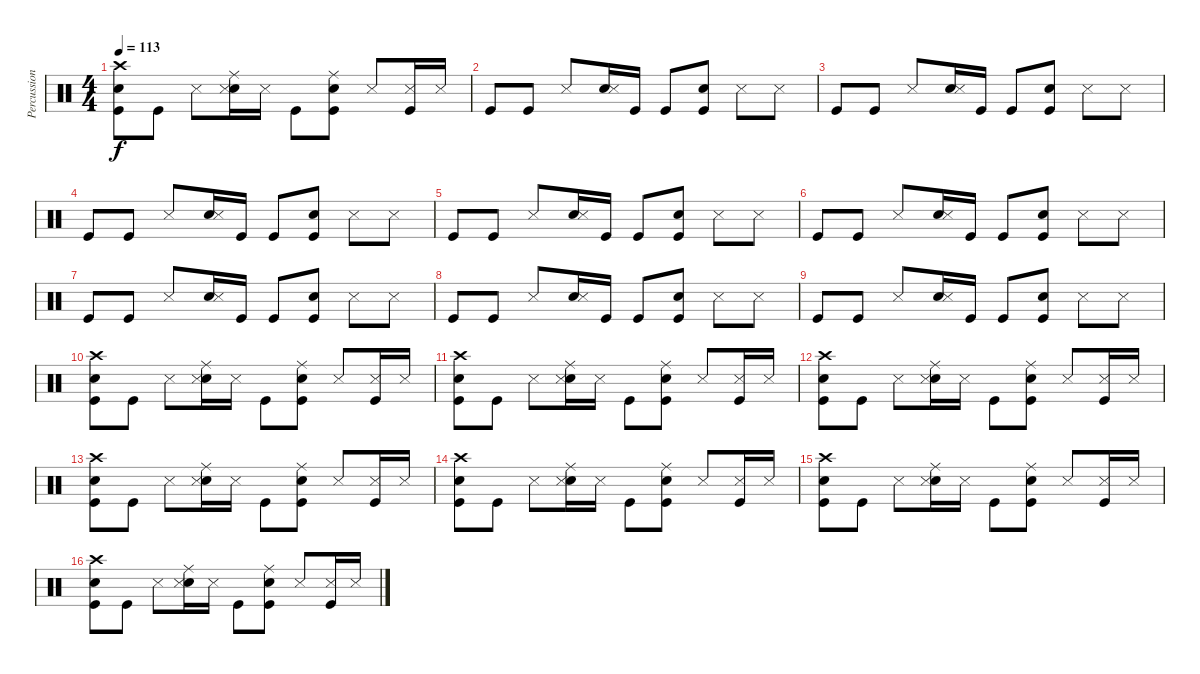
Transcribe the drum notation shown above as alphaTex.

\track ("Percussion" "Percussion") {instrument percussion}
\staff {score}
\articulation defaults
\ts (4 4)
\tempo 113
\clef neutral
\ks c
("Crash high (hit)" "Electric Snare (hit)" "Kick (hit)").8{dy f} "Kick (hit)".8 "Snare (side stick) 3".8 ("Ride (middle)" "Electric Snare (hit)" "Snare (side stick) 3").16 "Snare (side stick) 3".16 "Kick (hit)".8 ("Ride (middle)" "Electric Snare (hit)" "Kick (hit)").8 "Snare (side stick) 3".8 ("Snare (side stick) 3" "Kick (hit)").16 "Snare (side stick) 3".16 |
"Kick (hit)".8 "Kick (hit)".8 "Snare (side stick) 3".8 ("Electric Snare (hit)" "Snare (side stick) 3").16 "Kick (hit)".16 "Kick (hit)".8 ("Electric Snare (hit)" "Kick (hit)").8 "Snare (side stick) 3".8 "Snare (side stick) 3".8 |
"Kick (hit)".8 "Kick (hit)".8 "Snare (side stick) 3".8 ("Electric Snare (hit)" "Snare (side stick) 3").16 "Kick (hit)".16 "Kick (hit)".8 ("Electric Snare (hit)" "Kick (hit)").8 "Snare (side stick) 3".8 "Snare (side stick) 3".8 |
"Kick (hit)".8 "Kick (hit)".8 "Snare (side stick) 3".8 ("Electric Snare (hit)" "Snare (side stick) 3").16 "Kick (hit)".16 "Kick (hit)".8 ("Electric Snare (hit)" "Kick (hit)").8 "Snare (side stick) 3".8 "Snare (side stick) 3".8 |
"Kick (hit)".8 "Kick (hit)".8 "Snare (side stick) 3".8 ("Electric Snare (hit)" "Snare (side stick) 3").16 "Kick (hit)".16 "Kick (hit)".8 ("Electric Snare (hit)" "Kick (hit)").8 "Snare (side stick) 3".8 "Snare (side stick) 3".8 |
"Kick (hit)".8 "Kick (hit)".8 "Snare (side stick) 3".8 ("Electric Snare (hit)" "Snare (side stick) 3").16 "Kick (hit)".16 "Kick (hit)".8 ("Electric Snare (hit)" "Kick (hit)").8 "Snare (side stick) 3".8 "Snare (side stick) 3".8 |
"Kick (hit)".8 "Kick (hit)".8 "Snare (side stick) 3".8 ("Electric Snare (hit)" "Snare (side stick) 3").16 "Kick (hit)".16 "Kick (hit)".8 ("Electric Snare (hit)" "Kick (hit)").8 "Snare (side stick) 3".8 "Snare (side stick) 3".8 |
"Kick (hit)".8 "Kick (hit)".8 "Snare (side stick) 3".8 ("Electric Snare (hit)" "Snare (side stick) 3").16 "Kick (hit)".16 "Kick (hit)".8 ("Electric Snare (hit)" "Kick (hit)").8 "Snare (side stick) 3".8 "Snare (side stick) 3".8 |
"Kick (hit)".8 "Kick (hit)".8 "Snare (side stick) 3".8 ("Electric Snare (hit)" "Snare (side stick) 3").16 "Kick (hit)".16 "Kick (hit)".8 ("Electric Snare (hit)" "Kick (hit)").8 "Snare (side stick) 3".8 "Snare (side stick) 3".8 |
("Crash high (hit)" "Electric Snare (hit)" "Kick (hit)").8 "Kick (hit)".8 "Snare (side stick) 3".8 ("Ride (middle)" "Electric Snare (hit)" "Snare (side stick) 3").16 "Snare (side stick) 3".16 "Kick (hit)".8 ("Ride (middle)" "Electric Snare (hit)" "Kick (hit)").8 "Snare (side stick) 3".8 ("Snare (side stick) 3" "Kick (hit)").16 "Snare (side stick) 3".16 |
("Crash high (hit)" "Electric Snare (hit)" "Kick (hit)").8 "Kick (hit)".8 "Snare (side stick) 3".8 ("Ride (middle)" "Electric Snare (hit)" "Snare (side stick) 3").16 "Snare (side stick) 3".16 "Kick (hit)".8 ("Ride (middle)" "Electric Snare (hit)" "Kick (hit)").8 "Snare (side stick) 3".8 ("Snare (side stick) 3" "Kick (hit)").16 "Snare (side stick) 3".16 |
("Crash high (hit)" "Electric Snare (hit)" "Kick (hit)").8 "Kick (hit)".8 "Snare (side stick) 3".8 ("Ride (middle)" "Electric Snare (hit)" "Snare (side stick) 3").16 "Snare (side stick) 3".16 "Kick (hit)".8 ("Ride (middle)" "Electric Snare (hit)" "Kick (hit)").8 "Snare (side stick) 3".8 ("Snare (side stick) 3" "Kick (hit)").16 "Snare (side stick) 3".16 |
("Crash high (hit)" "Electric Snare (hit)" "Kick (hit)").8 "Kick (hit)".8 "Snare (side stick) 3".8 ("Ride (middle)" "Electric Snare (hit)" "Snare (side stick) 3").16 "Snare (side stick) 3".16 "Kick (hit)".8 ("Ride (middle)" "Electric Snare (hit)" "Kick (hit)").8 "Snare (side stick) 3".8 ("Snare (side stick) 3" "Kick (hit)").16 "Snare (side stick) 3".16 |
("Crash high (hit)" "Electric Snare (hit)" "Kick (hit)").8 "Kick (hit)".8 "Snare (side stick) 3".8 ("Ride (middle)" "Electric Snare (hit)" "Snare (side stick) 3").16 "Snare (side stick) 3".16 "Kick (hit)".8 ("Ride (middle)" "Electric Snare (hit)" "Kick (hit)").8 "Snare (side stick) 3".8 ("Snare (side stick) 3" "Kick (hit)").16 "Snare (side stick) 3".16 |
("Crash high (hit)" "Electric Snare (hit)" "Kick (hit)").8 "Kick (hit)".8 "Snare (side stick) 3".8 ("Ride (middle)" "Electric Snare (hit)" "Snare (side stick) 3").16 "Snare (side stick) 3".16 "Kick (hit)".8 ("Ride (middle)" "Electric Snare (hit)" "Kick (hit)").8 "Snare (side stick) 3".8 ("Snare (side stick) 3" "Kick (hit)").16 "Snare (side stick) 3".16 |
("Crash high (hit)" "Electric Snare (hit)" "Kick (hit)").8 "Kick (hit)".8 "Snare (side stick) 3".8 ("Ride (middle)" "Electric Snare (hit)" "Snare (side stick) 3").16 "Snare (side stick) 3".16 "Kick (hit)".8 ("Ride (middle)" "Electric Snare (hit)" "Kick (hit)").8 "Snare (side stick) 3".8 ("Snare (side stick) 3" "Kick (hit)").16 "Snare (side stick) 3".16
